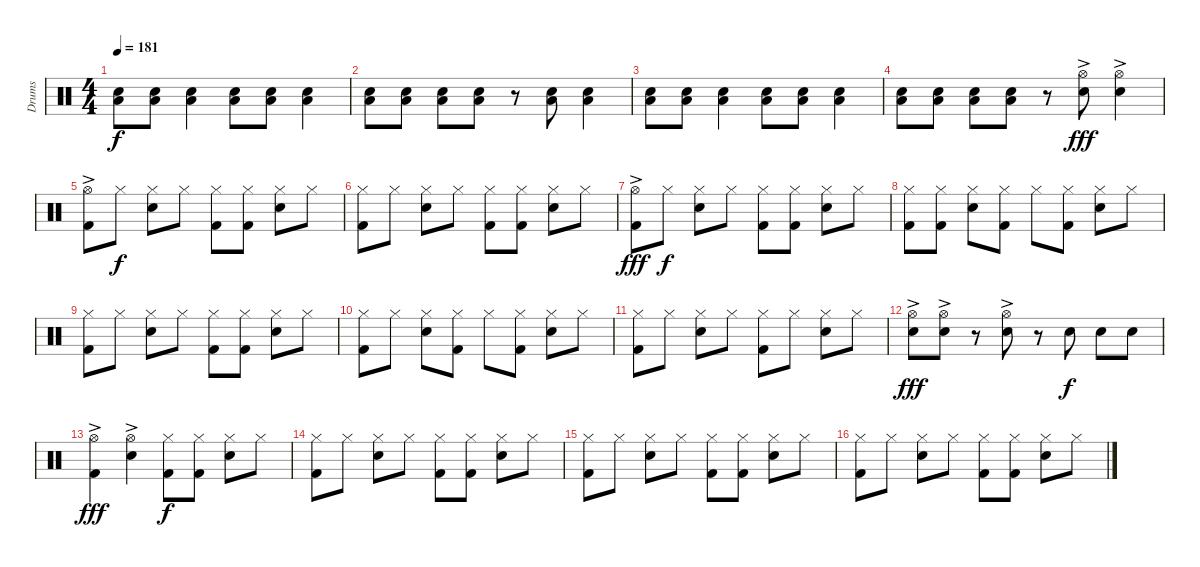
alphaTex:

\track ("Drums" "Drums") {instrument percussion}
\staff {score}
\articulation defaults
\ts (4 4)
\tempo 181
\clef neutral
\ks c
("Snare (hit) 2" "Low Tom (hit)").8{dy f} ("Snare (hit) 2" "Low Tom (hit)").8 ("Snare (hit) 2" "Low Tom (hit)").4 ("Snare (hit) 2" "Low Tom (hit)").8 ("Snare (hit) 2" "Low Tom (hit)").8 ("Snare (hit) 2" "Low Tom (hit)").4 |
("Snare (hit) 2" "Low Tom (hit)").8 ("Snare (hit) 2" "Low Tom (hit)").8 ("Snare (hit) 2" "Low Tom (hit)").8 ("Snare (hit) 2" "Low Tom (hit)").8 r.8 ("Snare (hit) 2" "Low Tom (hit)").8 ("Snare (hit) 2" "Low Tom (hit)").4 |
("Snare (hit) 2" "Low Tom (hit)").8 ("Snare (hit) 2" "Low Tom (hit)").8 ("Snare (hit) 2" "Low Tom (hit)").4 ("Snare (hit) 2" "Low Tom (hit)").8 ("Snare (hit) 2" "Low Tom (hit)").8 ("Snare (hit) 2" "Low Tom (hit)").4 |
("Snare (hit) 2" "Low Tom (hit)").8 ("Snare (hit) 2" "Low Tom (hit)").8 ("Snare (hit) 2" "Low Tom (hit)").8 ("Snare (hit) 2" "Low Tom (hit)").8 r.8 ("Hi-Hat (open)"{ac} "Snare (hit) 2").8{dy fff} ("Hi-Hat (open)"{ac} "Snare (hit) 2").4 |
("Hi-Hat (open)"{ac} "Kick (hit) 2").8 "Hi-Hat (closed)".8{dy f} ("Hi-Hat (closed)" "Snare (hit) 2").8 "Hi-Hat (closed)".8 ("Hi-Hat (closed)" "Kick (hit) 2").8 ("Hi-Hat (closed)" "Kick (hit) 2").8 ("Hi-Hat (closed)" "Snare (hit) 2").8 "Hi-Hat (closed)".8 |
("Hi-Hat (closed)" "Kick (hit) 2").8 "Hi-Hat (closed)".8 ("Hi-Hat (closed)" "Snare (hit) 2").8 "Hi-Hat (closed)".8 ("Hi-Hat (closed)" "Kick (hit) 2").8 ("Hi-Hat (closed)" "Kick (hit) 2").8 ("Hi-Hat (closed)" "Snare (hit) 2").8 "Hi-Hat (closed)".8 |
("Hi-Hat (open)"{ac} "Kick (hit) 2").8{dy fff} "Hi-Hat (closed)".8{dy f} ("Hi-Hat (closed)" "Snare (hit) 2").8 "Hi-Hat (closed)".8 ("Hi-Hat (closed)" "Kick (hit) 2").8 ("Hi-Hat (closed)" "Kick (hit) 2").8 ("Hi-Hat (closed)" "Snare (hit) 2").8 "Hi-Hat (closed)".8 |
("Hi-Hat (closed)" "Kick (hit) 2").8 ("Hi-Hat (closed)" "Kick (hit) 2").8 ("Hi-Hat (closed)" "Snare (hit) 2").8 ("Hi-Hat (closed)" "Kick (hit) 2").8 "Hi-Hat (closed)".8 ("Hi-Hat (closed)" "Kick (hit) 2").8 ("Hi-Hat (closed)" "Snare (hit) 2").8 "Hi-Hat (closed)".8 |
("Hi-Hat (closed)" "Kick (hit) 2").8 "Hi-Hat (closed)".8 ("Hi-Hat (closed)" "Snare (hit) 2").8 "Hi-Hat (closed)".8 ("Hi-Hat (closed)" "Kick (hit) 2").8 ("Hi-Hat (closed)" "Kick (hit) 2").8 ("Hi-Hat (closed)" "Snare (hit) 2").8 "Hi-Hat (closed)".8 |
("Hi-Hat (closed)" "Kick (hit) 2").8 "Hi-Hat (closed)".8 ("Hi-Hat (closed)" "Snare (hit) 2").8 ("Hi-Hat (closed)" "Kick (hit) 2").8 "Hi-Hat (closed)".8 ("Hi-Hat (closed)" "Kick (hit) 2").8 ("Hi-Hat (closed)" "Snare (hit) 2").8 "Hi-Hat (closed)".8 |
("Hi-Hat (closed)" "Kick (hit) 2").8 "Hi-Hat (closed)".8 ("Hi-Hat (closed)" "Snare (hit) 2").8 "Hi-Hat (closed)".8 ("Hi-Hat (closed)" "Kick (hit) 2").8 "Hi-Hat (closed)".8 ("Hi-Hat (closed)" "Snare (hit) 2").8 "Hi-Hat (closed)".8 |
("Hi-Hat (open)"{ac} "Snare (hit) 2").8{dy fff} ("Hi-Hat (open)"{ac} "Snare (hit) 2").8 r.8 ("Hi-Hat (open)"{ac} "Snare (hit) 2").8 r.8 "Snare (hit) 2".8{dy f} "Snare (hit) 2".8 "Snare (hit) 2".8 |
("Hi-Hat (open)"{ac} "Kick (hit) 2").4{dy fff} ("Hi-Hat (open)"{ac} "Snare (hit) 2").4 ("Hi-Hat (closed)" "Kick (hit) 2").8{dy f} ("Hi-Hat (closed)" "Kick (hit) 2").8 ("Hi-Hat (closed)" "Snare (hit) 2").8 "Hi-Hat (closed)".8 |
("Hi-Hat (closed)" "Kick (hit) 2").8 "Hi-Hat (closed)".8 ("Hi-Hat (closed)" "Snare (hit) 2").8 "Hi-Hat (closed)".8 ("Hi-Hat (closed)" "Kick (hit) 2").8 ("Hi-Hat (closed)" "Kick (hit) 2").8 ("Hi-Hat (closed)" "Snare (hit) 2").8 "Hi-Hat (closed)".8 |
("Hi-Hat (closed)" "Kick (hit) 2").8 "Hi-Hat (closed)".8 ("Hi-Hat (closed)" "Snare (hit) 2").8 "Hi-Hat (closed)".8 ("Hi-Hat (closed)" "Kick (hit) 2").8 ("Hi-Hat (closed)" "Kick (hit) 2").8 ("Hi-Hat (closed)" "Snare (hit) 2").8 "Hi-Hat (closed)".8 |
("Hi-Hat (closed)" "Kick (hit) 2").8 "Hi-Hat (closed)".8 ("Hi-Hat (closed)" "Snare (hit) 2").8 "Hi-Hat (closed)".8 ("Hi-Hat (closed)" "Kick (hit) 2").8 ("Hi-Hat (closed)" "Kick (hit) 2").8 ("Hi-Hat (closed)" "Snare (hit) 2").8 "Hi-Hat (closed)".8
